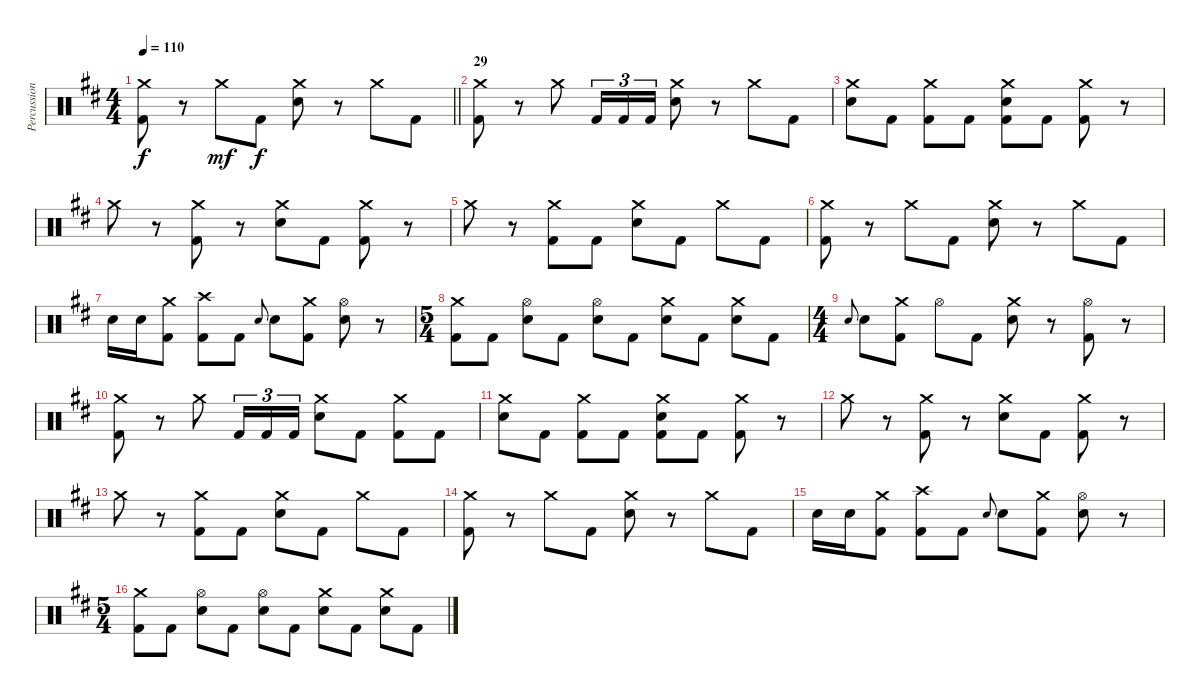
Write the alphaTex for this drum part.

\track ("Percussion" "Percussion") {instrument percussion}
\staff {score}
\articulation defaults
\ts (4 4)
\tempo 110
\clef neutral
\barLineRight lightlight
\ks bminor
("Crash medium (hit)" "Kick (hit) 2").8{dy f} r.8 "Crash medium (hit)".8{dy mf} "Kick (hit) 2".8{dy f} ("Crash medium (hit)" "Snare (hit) 2").8 r.8 "Crash medium (hit)".8 "Kick (hit) 2".8 |
\section ("" "29")
("Crash medium (hit)" "Kick (hit) 2").8 r.8 "Crash medium (hit)".8 "Kick (hit) 2".16{tu (3 2)} "Kick (hit) 2".16{tu (3 2)} "Kick (hit) 2".16{tu (3 2)} ("Crash medium (hit)" "Snare (hit) 2").8 r.8 "Crash medium (hit)".8 "Kick (hit) 2".8 |
("Crash medium (hit)" "Snare (hit) 2").8 "Kick (hit) 2".8 ("Crash medium (hit)" "Kick (hit) 2").8 "Kick (hit) 2".8 ("Crash medium (hit)" "Snare (hit) 2" "Kick (hit) 2").8 "Kick (hit) 2".8 ("Crash medium (hit)" "Kick (hit) 2").8 r.8 |
"Crash medium (hit)".8 r.8 ("Crash medium (hit)" "Kick (hit) 2").8 r.8 ("Crash medium (hit)" "Snare (hit) 2").8 "Kick (hit) 2".8 ("Crash medium (hit)" "Kick (hit) 2").8 r.8 |
"Crash medium (hit)".8 r.8 ("Crash medium (hit)" "Kick (hit) 2").8 "Kick (hit) 2".8 ("Crash medium (hit)" "Snare (hit) 2").8 "Kick (hit) 2".8 "Crash medium (hit)".8 "Kick (hit) 2".8 |
("Crash medium (hit)" "Kick (hit) 2").8 r.8 "Crash medium (hit)".8 "Kick (hit) 2".8 ("Crash medium (hit)" "Snare (hit) 2").8 r.8 "Crash medium (hit)".8 "Kick (hit) 2".8 |
"Snare (hit) 2".16 "Snare (hit) 2".16 ("Crash medium (hit)" "Kick (hit) 2").8 ("Crash high (hit)" "Kick (hit) 2").8 "Kick (hit) 2".8 "Snare (hit) 2".8{gr onbeat} "Snare (hit) 2".8 ("Crash medium (hit)" "Kick (hit) 2").8 ("Hi-Hat (open)" "Snare (hit) 2").8 r.8 |
\ts (5 4)
("Crash medium (hit)" "Kick (hit) 2").8 "Kick (hit) 2".8 ("Hi-Hat (open)" "Snare (hit) 2").8 "Kick (hit) 2".8 ("Hi-Hat (open)" "Snare (hit) 2").8 "Kick (hit) 2".8 ("Crash medium (hit)" "Snare (hit) 2").8 "Kick (hit) 2".8 ("Crash medium (hit)" "Snare (hit) 2").8 "Kick (hit) 2".8 |
\ts (4 4)
"Snare (hit) 2".8{gr onbeat} "Snare (hit) 2".8 ("Crash medium (hit)" "Kick (hit) 2").8 "Hi-Hat (open)".8 "Kick (hit) 2".8 ("Crash medium (hit)" "Snare (hit) 2").8 r.8 ("Hi-Hat (open)" "Kick (hit) 2").8 r.8 |
("Crash medium (hit)" "Kick (hit) 2").8 r.8 "Crash medium (hit)".8 "Kick (hit) 2".16{tu (3 2)} "Kick (hit) 2".16{tu (3 2)} "Kick (hit) 2".16{tu (3 2)} ("Crash medium (hit)" "Snare (hit) 2").8 "Kick (hit) 2".8 ("Crash medium (hit)" "Kick (hit) 2").8 "Kick (hit) 2".8 |
("Crash medium (hit)" "Snare (hit) 2").8 "Kick (hit) 2".8 ("Crash medium (hit)" "Kick (hit) 2").8 "Kick (hit) 2".8 ("Crash medium (hit)" "Snare (hit) 2" "Kick (hit) 2").8 "Kick (hit) 2".8 ("Crash medium (hit)" "Kick (hit) 2").8 r.8 |
"Crash medium (hit)".8 r.8 ("Crash medium (hit)" "Kick (hit) 2").8 r.8 ("Crash medium (hit)" "Snare (hit) 2").8 "Kick (hit) 2".8 ("Crash medium (hit)" "Kick (hit) 2").8 r.8 |
"Crash medium (hit)".8 r.8 ("Crash medium (hit)" "Kick (hit) 2").8 "Kick (hit) 2".8 ("Crash medium (hit)" "Snare (hit) 2").8 "Kick (hit) 2".8 "Crash medium (hit)".8 "Kick (hit) 2".8 |
("Crash medium (hit)" "Kick (hit) 2").8 r.8 "Crash medium (hit)".8 "Kick (hit) 2".8 ("Crash medium (hit)" "Snare (hit) 2").8 r.8 "Crash medium (hit)".8 "Kick (hit) 2".8 |
"Snare (hit) 2".16 "Snare (hit) 2".16 ("Crash medium (hit)" "Kick (hit) 2").8 ("Crash high (hit)" "Kick (hit) 2").8 "Kick (hit) 2".8 "Snare (hit) 2".8{gr onbeat} "Snare (hit) 2".8 ("Crash medium (hit)" "Kick (hit) 2").8 ("Hi-Hat (open)" "Snare (hit) 2").8 r.8 |
\ts (5 4)
("Crash medium (hit)" "Kick (hit) 2").8 "Kick (hit) 2".8 ("Hi-Hat (open)" "Snare (hit) 2").8 "Kick (hit) 2".8 ("Hi-Hat (open)" "Snare (hit) 2").8 "Kick (hit) 2".8 ("Crash medium (hit)" "Snare (hit) 2").8 "Kick (hit) 2".8 ("Crash medium (hit)" "Snare (hit) 2").8 "Kick (hit) 2".8
